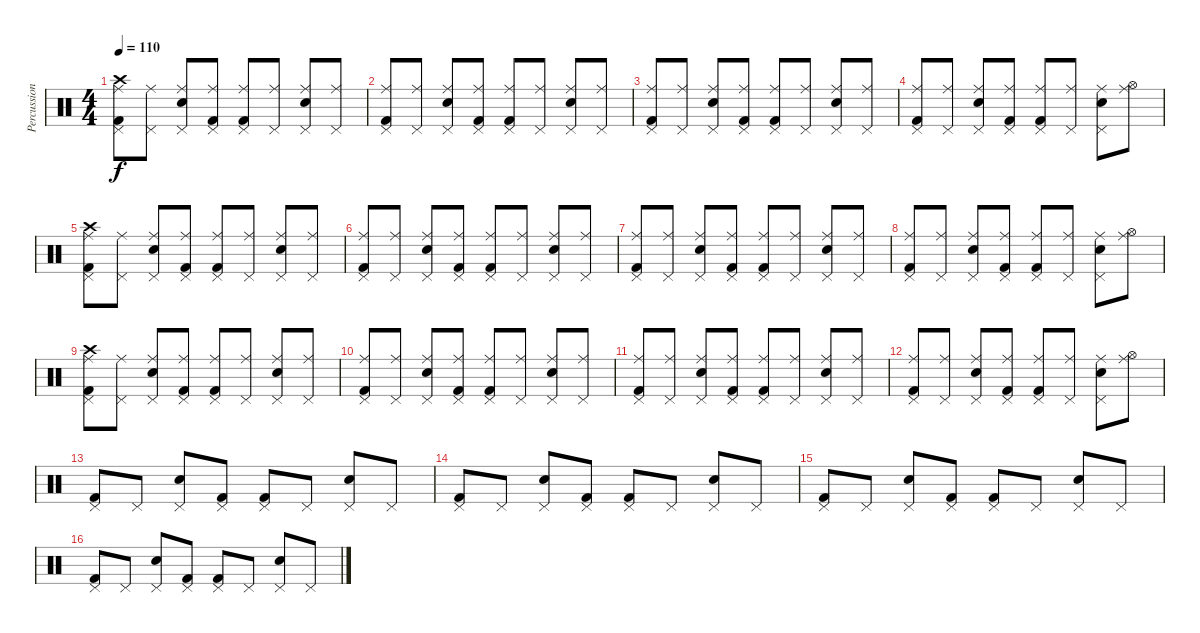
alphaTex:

\track ("Percussions" "Percussion") {instrument percussion}
\staff {score}
\articulation defaults
\ts (4 4)
\tempo 110
\clef neutral
\ks c
("Crash high (hit)" "Pedal Hi-Hat (hit)" "Kick (hit) 2" "Ride (middle)").8{dy f} ("Pedal Hi-Hat (hit)" "Ride (middle)").8 ("Pedal Hi-Hat (hit)" "Electric Snare (hit)" "Ride (middle)").8 ("Pedal Hi-Hat (hit)" "Kick (hit) 2" "Ride (middle)").8 ("Pedal Hi-Hat (hit)" "Kick (hit) 2" "Ride (middle)").8 ("Pedal Hi-Hat (hit)" "Ride (middle)").8 ("Pedal Hi-Hat (hit)" "Electric Snare (hit)" "Ride (middle)").8 ("Pedal Hi-Hat (hit)" "Ride (middle)").8 |
("Pedal Hi-Hat (hit)" "Kick (hit) 2" "Ride (middle)").8 ("Pedal Hi-Hat (hit)" "Ride (middle)").8 ("Pedal Hi-Hat (hit)" "Electric Snare (hit)" "Ride (middle)").8 ("Pedal Hi-Hat (hit)" "Kick (hit) 2" "Ride (middle)").8 ("Pedal Hi-Hat (hit)" "Kick (hit) 2" "Ride (middle)").8 ("Pedal Hi-Hat (hit)" "Ride (middle)").8 ("Pedal Hi-Hat (hit)" "Electric Snare (hit)" "Ride (middle)").8 ("Pedal Hi-Hat (hit)" "Ride (middle)").8 |
("Pedal Hi-Hat (hit)" "Kick (hit) 2" "Ride (middle)").8 ("Pedal Hi-Hat (hit)" "Ride (middle)").8 ("Pedal Hi-Hat (hit)" "Electric Snare (hit)" "Ride (middle)").8 ("Pedal Hi-Hat (hit)" "Kick (hit) 2" "Ride (middle)").8 ("Pedal Hi-Hat (hit)" "Kick (hit) 2" "Ride (middle)").8 ("Pedal Hi-Hat (hit)" "Ride (middle)").8 ("Pedal Hi-Hat (hit)" "Electric Snare (hit)" "Ride (middle)").8 ("Pedal Hi-Hat (hit)" "Ride (middle)").8 |
("Pedal Hi-Hat (hit)" "Kick (hit) 2" "Ride (middle)").8 ("Pedal Hi-Hat (hit)" "Ride (middle)").8 ("Pedal Hi-Hat (hit)" "Electric Snare (hit)" "Ride (middle)").8 ("Pedal Hi-Hat (hit)" "Kick (hit) 2" "Ride (middle)").8 ("Pedal Hi-Hat (hit)" "Kick (hit) 2" "Ride (middle)").8 ("Pedal Hi-Hat (hit)" "Ride (middle)").8 ("Pedal Hi-Hat (hit)" "Electric Snare (hit)" "Ride (middle)").8 ("Hi-Hat (open)" "Ride (middle)").8 |
("Crash high (hit)" "Pedal Hi-Hat (hit)" "Kick (hit) 2" "Ride (middle)").8 ("Pedal Hi-Hat (hit)" "Ride (middle)").8 ("Pedal Hi-Hat (hit)" "Electric Snare (hit)" "Ride (middle)").8 ("Pedal Hi-Hat (hit)" "Kick (hit) 2" "Ride (middle)").8 ("Pedal Hi-Hat (hit)" "Kick (hit) 2" "Ride (middle)").8 ("Pedal Hi-Hat (hit)" "Ride (middle)").8 ("Pedal Hi-Hat (hit)" "Electric Snare (hit)" "Ride (middle)").8 ("Pedal Hi-Hat (hit)" "Ride (middle)").8 |
("Pedal Hi-Hat (hit)" "Kick (hit) 2" "Ride (middle)").8 ("Pedal Hi-Hat (hit)" "Ride (middle)").8 ("Pedal Hi-Hat (hit)" "Electric Snare (hit)" "Ride (middle)").8 ("Pedal Hi-Hat (hit)" "Kick (hit) 2" "Ride (middle)").8 ("Pedal Hi-Hat (hit)" "Kick (hit) 2" "Ride (middle)").8 ("Pedal Hi-Hat (hit)" "Ride (middle)").8 ("Pedal Hi-Hat (hit)" "Electric Snare (hit)" "Ride (middle)").8 ("Pedal Hi-Hat (hit)" "Ride (middle)").8 |
("Pedal Hi-Hat (hit)" "Kick (hit) 2" "Ride (middle)").8 ("Pedal Hi-Hat (hit)" "Ride (middle)").8 ("Pedal Hi-Hat (hit)" "Electric Snare (hit)" "Ride (middle)").8 ("Pedal Hi-Hat (hit)" "Kick (hit) 2" "Ride (middle)").8 ("Pedal Hi-Hat (hit)" "Kick (hit) 2" "Ride (middle)").8 ("Pedal Hi-Hat (hit)" "Ride (middle)").8 ("Pedal Hi-Hat (hit)" "Electric Snare (hit)" "Ride (middle)").8 ("Pedal Hi-Hat (hit)" "Ride (middle)").8 |
("Pedal Hi-Hat (hit)" "Kick (hit) 2" "Ride (middle)").8 ("Pedal Hi-Hat (hit)" "Ride (middle)").8 ("Pedal Hi-Hat (hit)" "Electric Snare (hit)" "Ride (middle)").8 ("Pedal Hi-Hat (hit)" "Kick (hit) 2" "Ride (middle)").8 ("Pedal Hi-Hat (hit)" "Kick (hit) 2" "Ride (middle)").8 ("Pedal Hi-Hat (hit)" "Ride (middle)").8 ("Pedal Hi-Hat (hit)" "Electric Snare (hit)" "Ride (middle)").8 ("Hi-Hat (open)" "Ride (middle)").8 |
("Crash high (hit)" "Pedal Hi-Hat (hit)" "Kick (hit) 2" "Ride (middle)").8 ("Pedal Hi-Hat (hit)" "Ride (middle)").8 ("Pedal Hi-Hat (hit)" "Electric Snare (hit)" "Ride (middle)").8 ("Pedal Hi-Hat (hit)" "Kick (hit) 2" "Ride (middle)").8 ("Pedal Hi-Hat (hit)" "Kick (hit) 2" "Ride (middle)").8 ("Pedal Hi-Hat (hit)" "Ride (middle)").8 ("Pedal Hi-Hat (hit)" "Electric Snare (hit)" "Ride (middle)").8 ("Pedal Hi-Hat (hit)" "Ride (middle)").8 |
("Pedal Hi-Hat (hit)" "Kick (hit) 2" "Ride (middle)").8 ("Pedal Hi-Hat (hit)" "Ride (middle)").8 ("Pedal Hi-Hat (hit)" "Electric Snare (hit)" "Ride (middle)").8 ("Pedal Hi-Hat (hit)" "Kick (hit) 2" "Ride (middle)").8 ("Pedal Hi-Hat (hit)" "Kick (hit) 2" "Ride (middle)").8 ("Pedal Hi-Hat (hit)" "Ride (middle)").8 ("Pedal Hi-Hat (hit)" "Electric Snare (hit)" "Ride (middle)").8 ("Pedal Hi-Hat (hit)" "Ride (middle)").8 |
("Pedal Hi-Hat (hit)" "Kick (hit) 2" "Ride (middle)").8 ("Pedal Hi-Hat (hit)" "Ride (middle)").8 ("Pedal Hi-Hat (hit)" "Electric Snare (hit)" "Ride (middle)").8 ("Pedal Hi-Hat (hit)" "Kick (hit) 2" "Ride (middle)").8 ("Pedal Hi-Hat (hit)" "Kick (hit) 2" "Ride (middle)").8 ("Pedal Hi-Hat (hit)" "Ride (middle)").8 ("Pedal Hi-Hat (hit)" "Electric Snare (hit)" "Ride (middle)").8 ("Pedal Hi-Hat (hit)" "Ride (middle)").8 |
("Pedal Hi-Hat (hit)" "Kick (hit) 2" "Ride (middle)").8 ("Pedal Hi-Hat (hit)" "Ride (middle)").8 ("Pedal Hi-Hat (hit)" "Electric Snare (hit)" "Ride (middle)").8 ("Pedal Hi-Hat (hit)" "Kick (hit) 2" "Ride (middle)").8 ("Pedal Hi-Hat (hit)" "Kick (hit) 2" "Ride (middle)").8 ("Pedal Hi-Hat (hit)" "Ride (middle)").8 ("Pedal Hi-Hat (hit)" "Electric Snare (hit)" "Ride (middle)").8 ("Hi-Hat (open)" "Ride (middle)").8 |
("Pedal Hi-Hat (hit)" "Kick (hit) 2").8 "Pedal Hi-Hat (hit)".8 ("Pedal Hi-Hat (hit)" "Electric Snare (hit)").8 ("Pedal Hi-Hat (hit)" "Kick (hit) 2").8 ("Pedal Hi-Hat (hit)" "Kick (hit) 2").8 "Pedal Hi-Hat (hit)".8 ("Pedal Hi-Hat (hit)" "Electric Snare (hit)").8 "Pedal Hi-Hat (hit)".8 |
("Pedal Hi-Hat (hit)" "Kick (hit) 2").8 "Pedal Hi-Hat (hit)".8 ("Pedal Hi-Hat (hit)" "Electric Snare (hit)").8 ("Pedal Hi-Hat (hit)" "Kick (hit) 2").8 ("Pedal Hi-Hat (hit)" "Kick (hit) 2").8 "Pedal Hi-Hat (hit)".8 ("Pedal Hi-Hat (hit)" "Electric Snare (hit)").8 "Pedal Hi-Hat (hit)".8 |
("Pedal Hi-Hat (hit)" "Kick (hit) 2").8 "Pedal Hi-Hat (hit)".8 ("Pedal Hi-Hat (hit)" "Electric Snare (hit)").8 ("Pedal Hi-Hat (hit)" "Kick (hit) 2").8 ("Pedal Hi-Hat (hit)" "Kick (hit) 2").8 "Pedal Hi-Hat (hit)".8 ("Pedal Hi-Hat (hit)" "Electric Snare (hit)").8 "Pedal Hi-Hat (hit)".8 |
("Pedal Hi-Hat (hit)" "Kick (hit) 2").8 "Pedal Hi-Hat (hit)".8 ("Pedal Hi-Hat (hit)" "Electric Snare (hit)").8 ("Pedal Hi-Hat (hit)" "Kick (hit) 2").8 ("Pedal Hi-Hat (hit)" "Kick (hit) 2").8 "Pedal Hi-Hat (hit)".8 ("Pedal Hi-Hat (hit)" "Electric Snare (hit)").8 "Pedal Hi-Hat (hit)".8
